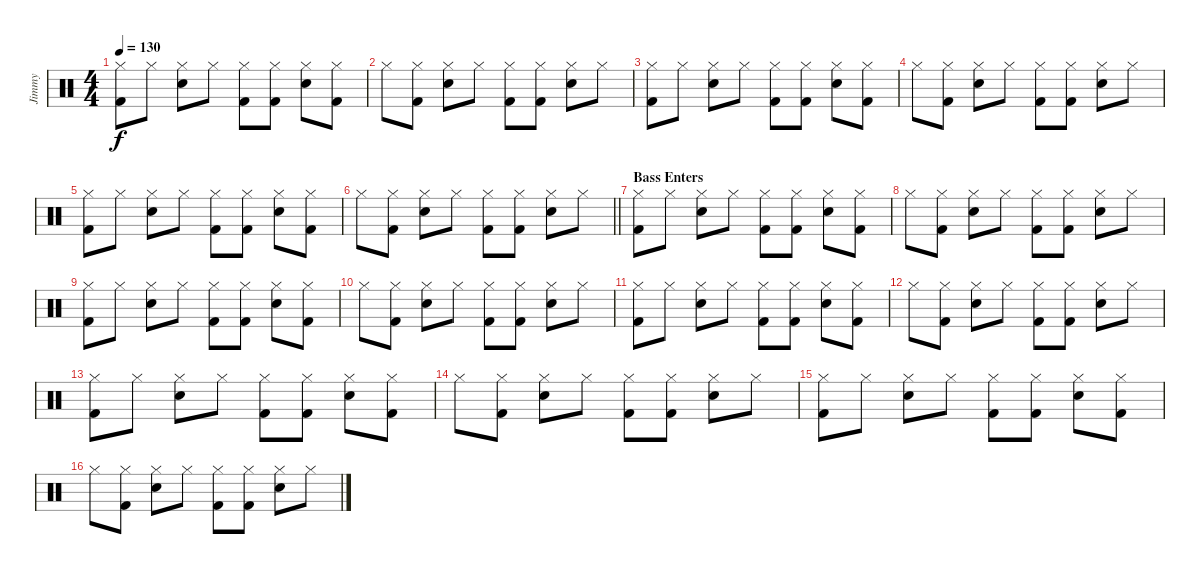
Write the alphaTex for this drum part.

\track ("Jimmy" "Jimmy") {instrument percussion}
\staff {score}
\articulation defaults
\ts (4 4)
\tempo 130
\clef neutral
\ks c
("Hi-Hat (closed)" "Kick (hit) 2").8{dy f} "Hi-Hat (closed)".8 ("Hi-Hat (closed)" "Electric Snare (hit)").8 "Hi-Hat (closed)".8 ("Hi-Hat (closed)" "Kick (hit) 2").8 ("Hi-Hat (closed)" "Kick (hit) 2").8 ("Hi-Hat (closed)" "Electric Snare (hit)").8 ("Hi-Hat (closed)" "Kick (hit) 2").8 |
"Hi-Hat (closed)".8 ("Hi-Hat (closed)" "Kick (hit) 2").8 ("Hi-Hat (closed)" "Electric Snare (hit)").8 "Hi-Hat (closed)".8 ("Hi-Hat (closed)" "Kick (hit) 2").8 ("Hi-Hat (closed)" "Kick (hit) 2").8 ("Hi-Hat (closed)" "Electric Snare (hit)").8 "Hi-Hat (closed)".8 |
("Hi-Hat (closed)" "Kick (hit) 2").8 "Hi-Hat (closed)".8 ("Hi-Hat (closed)" "Electric Snare (hit)").8 "Hi-Hat (closed)".8 ("Hi-Hat (closed)" "Kick (hit) 2").8 ("Hi-Hat (closed)" "Kick (hit) 2").8 ("Hi-Hat (closed)" "Electric Snare (hit)").8 ("Hi-Hat (closed)" "Kick (hit) 2").8 |
"Hi-Hat (closed)".8 ("Hi-Hat (closed)" "Kick (hit) 2").8 ("Hi-Hat (closed)" "Electric Snare (hit)").8 "Hi-Hat (closed)".8 ("Hi-Hat (closed)" "Kick (hit) 2").8 ("Hi-Hat (closed)" "Kick (hit) 2").8 ("Hi-Hat (closed)" "Electric Snare (hit)").8 "Hi-Hat (closed)".8 |
("Hi-Hat (closed)" "Kick (hit) 2").8 "Hi-Hat (closed)".8 ("Hi-Hat (closed)" "Electric Snare (hit)").8 "Hi-Hat (closed)".8 ("Hi-Hat (closed)" "Kick (hit) 2").8 ("Hi-Hat (closed)" "Kick (hit) 2").8 ("Hi-Hat (closed)" "Electric Snare (hit)").8 ("Hi-Hat (closed)" "Kick (hit) 2").8 |
\barLineRight lightlight "Hi-Hat (closed)".8
("Hi-Hat (closed)" "Kick (hit) 2").8 ("Hi-Hat (closed)" "Electric Snare (hit)").8 "Hi-Hat (closed)".8 ("Hi-Hat (closed)" "Kick (hit) 2").8 ("Hi-Hat (closed)" "Kick (hit) 2").8 ("Hi-Hat (closed)" "Electric Snare (hit)").8 "Hi-Hat (closed)".8 |
\section ("" "Bass Enters")
("Hi-Hat (closed)" "Kick (hit) 2").8 "Hi-Hat (closed)".8 ("Hi-Hat (closed)" "Electric Snare (hit)").8 "Hi-Hat (closed)".8 ("Hi-Hat (closed)" "Kick (hit) 2").8 ("Hi-Hat (closed)" "Kick (hit) 2").8 ("Hi-Hat (closed)" "Electric Snare (hit)").8 ("Hi-Hat (closed)" "Kick (hit) 2").8 |
"Hi-Hat (closed)".8 ("Hi-Hat (closed)" "Kick (hit) 2").8 ("Hi-Hat (closed)" "Electric Snare (hit)").8 "Hi-Hat (closed)".8 ("Hi-Hat (closed)" "Kick (hit) 2").8 ("Hi-Hat (closed)" "Kick (hit) 2").8 ("Hi-Hat (closed)" "Electric Snare (hit)").8 "Hi-Hat (closed)".8 |
("Hi-Hat (closed)" "Kick (hit) 2").8 "Hi-Hat (closed)".8 ("Hi-Hat (closed)" "Electric Snare (hit)").8 "Hi-Hat (closed)".8 ("Hi-Hat (closed)" "Kick (hit) 2").8 ("Hi-Hat (closed)" "Kick (hit) 2").8 ("Hi-Hat (closed)" "Electric Snare (hit)").8 ("Hi-Hat (closed)" "Kick (hit) 2").8 |
"Hi-Hat (closed)".8 ("Hi-Hat (closed)" "Kick (hit) 2").8 ("Hi-Hat (closed)" "Electric Snare (hit)").8 "Hi-Hat (closed)".8 ("Hi-Hat (closed)" "Kick (hit) 2").8 ("Hi-Hat (closed)" "Kick (hit) 2").8 ("Hi-Hat (closed)" "Electric Snare (hit)").8 "Hi-Hat (closed)".8 |
("Hi-Hat (closed)" "Kick (hit) 2").8 "Hi-Hat (closed)".8 ("Hi-Hat (closed)" "Electric Snare (hit)").8 "Hi-Hat (closed)".8 ("Hi-Hat (closed)" "Kick (hit) 2").8 ("Hi-Hat (closed)" "Kick (hit) 2").8 ("Hi-Hat (closed)" "Electric Snare (hit)").8 ("Hi-Hat (closed)" "Kick (hit) 2").8 |
"Hi-Hat (closed)".8 ("Hi-Hat (closed)" "Kick (hit) 2").8 ("Hi-Hat (closed)" "Electric Snare (hit)").8 "Hi-Hat (closed)".8 ("Hi-Hat (closed)" "Kick (hit) 2").8 ("Hi-Hat (closed)" "Kick (hit) 2").8 ("Hi-Hat (closed)" "Electric Snare (hit)").8 "Hi-Hat (closed)".8 |
("Hi-Hat (closed)" "Kick (hit) 2").8 "Hi-Hat (closed)".8 ("Hi-Hat (closed)" "Electric Snare (hit)").8 "Hi-Hat (closed)".8 ("Hi-Hat (closed)" "Kick (hit) 2").8 ("Hi-Hat (closed)" "Kick (hit) 2").8 ("Hi-Hat (closed)" "Electric Snare (hit)").8 ("Hi-Hat (closed)" "Kick (hit) 2").8 |
"Hi-Hat (closed)".8 ("Hi-Hat (closed)" "Kick (hit) 2").8 ("Hi-Hat (closed)" "Electric Snare (hit)").8 "Hi-Hat (closed)".8 ("Hi-Hat (closed)" "Kick (hit) 2").8 ("Hi-Hat (closed)" "Kick (hit) 2").8 ("Hi-Hat (closed)" "Electric Snare (hit)").8 "Hi-Hat (closed)".8 |
("Hi-Hat (closed)" "Kick (hit) 2").8 "Hi-Hat (closed)".8 ("Hi-Hat (closed)" "Electric Snare (hit)").8 "Hi-Hat (closed)".8 ("Hi-Hat (closed)" "Kick (hit) 2").8 ("Hi-Hat (closed)" "Kick (hit) 2").8 ("Hi-Hat (closed)" "Electric Snare (hit)").8 ("Hi-Hat (closed)" "Kick (hit) 2").8 |
"Hi-Hat (closed)".8 ("Hi-Hat (closed)" "Kick (hit) 2").8 ("Hi-Hat (closed)" "Electric Snare (hit)").8 "Hi-Hat (closed)".8 ("Hi-Hat (closed)" "Kick (hit) 2").8 ("Hi-Hat (closed)" "Kick (hit) 2").8 ("Hi-Hat (closed)" "Electric Snare (hit)").8 "Hi-Hat (closed)".8
